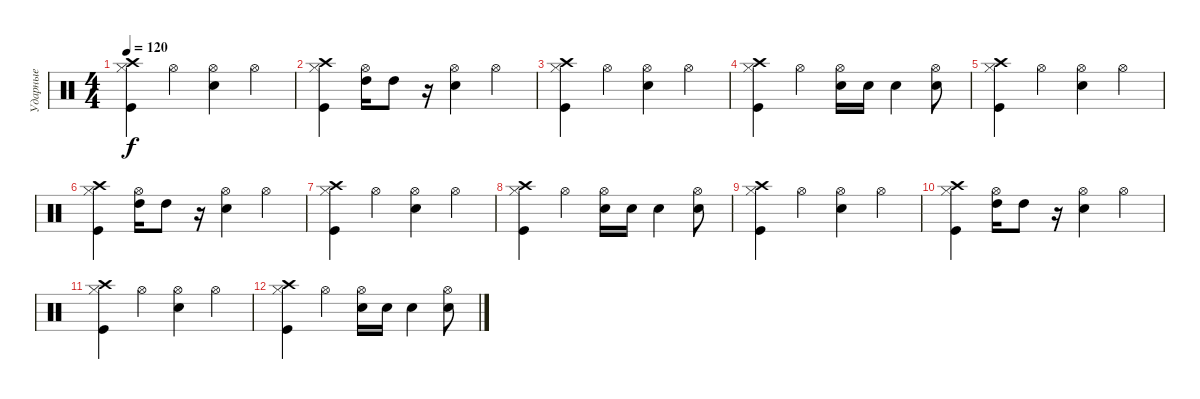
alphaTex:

\track ("Ударные" "Ударные") {instrument percussion}
\staff {score}
\articulation defaults
\ts (4 4)
\tempo 120
\clef neutral
\ks c
("Crash high (hit)" "Hi-Hat (closed)" "Kick (hit)").4{dy f} "Hi-Hat (open)".4 ("Hi-Hat (open)" "Electric Snare (hit)").4 "Hi-Hat (open)".4 |
("Hi-Hat (closed)" "Crash high (hit)" "Kick (hit)").4 ("Hi-Hat (open)" "High Tom (hit)").16 "High Tom (hit)".8 r.16 ("Hi-Hat (open)" "Electric Snare (hit)").4 "Hi-Hat (open)".4 |
("Crash high (hit)" "Hi-Hat (closed)" "Kick (hit)").4 "Hi-Hat (open)".4 ("Hi-Hat (open)" "Electric Snare (hit)").4 "Hi-Hat (open)".4 |
("Crash high (hit)" "Hi-Hat (closed)" "Kick (hit)").4 "Hi-Hat (open)".4 ("Hi-Hat (open)" "Electric Snare (hit)").16 "Electric Snare (hit)".16 "Electric Snare (hit)".4 ("Hi-Hat (open)" "Electric Snare (hit)").8 |
("Crash high (hit)" "Hi-Hat (closed)" "Kick (hit)").4 "Hi-Hat (open)".4 ("Hi-Hat (open)" "Electric Snare (hit)").4 "Hi-Hat (open)".4 |
("Hi-Hat (closed)" "Crash high (hit)" "Kick (hit)").4 ("Hi-Hat (open)" "High Tom (hit)").16 "High Tom (hit)".8 r.16 ("Hi-Hat (open)" "Electric Snare (hit)").4 "Hi-Hat (open)".4 |
("Crash high (hit)" "Hi-Hat (closed)" "Kick (hit)").4 "Hi-Hat (open)".4 ("Hi-Hat (open)" "Electric Snare (hit)").4 "Hi-Hat (open)".4 |
("Crash high (hit)" "Hi-Hat (closed)" "Kick (hit)").4 "Hi-Hat (open)".4 ("Hi-Hat (open)" "Electric Snare (hit)").16 "Electric Snare (hit)".16 "Electric Snare (hit)".4 ("Hi-Hat (open)" "Electric Snare (hit)").8 |
("Crash high (hit)" "Hi-Hat (closed)" "Kick (hit)").4 "Hi-Hat (open)".4 ("Hi-Hat (open)" "Electric Snare (hit)").4 "Hi-Hat (open)".4 |
("Hi-Hat (closed)" "Crash high (hit)" "Kick (hit)").4 ("Hi-Hat (open)" "High Tom (hit)").16 "High Tom (hit)".8 r.16 ("Hi-Hat (open)" "Electric Snare (hit)").4 "Hi-Hat (open)".4 |
("Crash high (hit)" "Hi-Hat (closed)" "Kick (hit)").4 "Hi-Hat (open)".4 ("Hi-Hat (open)" "Electric Snare (hit)").4 "Hi-Hat (open)".4 |
("Crash high (hit)" "Hi-Hat (closed)" "Kick (hit)").4 "Hi-Hat (open)".4 ("Hi-Hat (open)" "Electric Snare (hit)").16 "Electric Snare (hit)".16 "Electric Snare (hit)".4 ("Hi-Hat (open)" "Electric Snare (hit)").8
